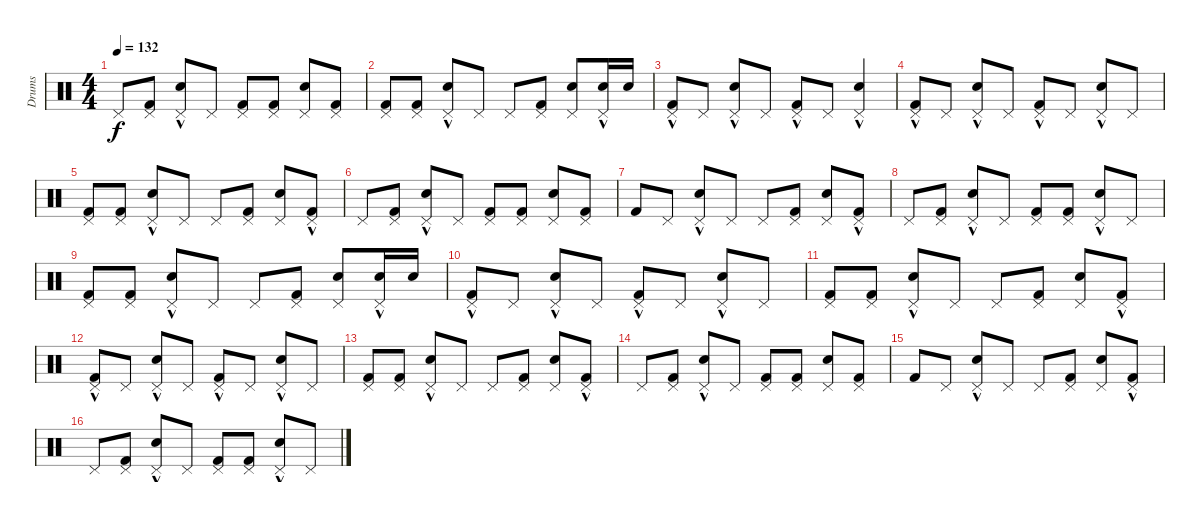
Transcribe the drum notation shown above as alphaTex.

\track ("Drums" "Drums") {instrument percussion}
\staff {score}
\articulation defaults
\ts (4 4)
\tempo 132
\clef neutral
\ks c "Pedal Hi-Hat (hit)".8{dy f}
("Pedal Hi-Hat (hit)" "Kick (hit) 2").8 ("Pedal Hi-Hat (hit)"{hac} "Snare (hit) 2").8 "Pedal Hi-Hat (hit)".8 ("Pedal Hi-Hat (hit)" "Kick (hit) 2").8 ("Pedal Hi-Hat (hit)" "Kick (hit) 2").8 ("Pedal Hi-Hat (hit)" "Snare (hit) 2").8 ("Pedal Hi-Hat (hit)" "Kick (hit) 2").8 |
("Pedal Hi-Hat (hit)" "Kick (hit) 2").8 ("Pedal Hi-Hat (hit)" "Kick (hit) 2").8 ("Pedal Hi-Hat (hit)"{hac} "Snare (hit) 2").8 "Pedal Hi-Hat (hit)".8 "Pedal Hi-Hat (hit)".8 ("Pedal Hi-Hat (hit)" "Kick (hit) 2").8 ("Pedal Hi-Hat (hit)" "Snare (hit) 2").8 ("Pedal Hi-Hat (hit)"{hac} "Snare (hit) 2").16 "Snare (hit) 2".16 |
("Pedal Hi-Hat (hit)"{hac} "Kick (hit) 2").8 "Pedal Hi-Hat (hit)".8 ("Pedal Hi-Hat (hit)"{hac} "Snare (hit) 2").8 "Pedal Hi-Hat (hit)".8 ("Pedal Hi-Hat (hit)"{hac} "Kick (hit) 2").8 "Pedal Hi-Hat (hit)".8 ("Pedal Hi-Hat (hit)"{hac} "Snare (hit) 2").4 |
("Pedal Hi-Hat (hit)"{hac} "Kick (hit) 2").8 "Pedal Hi-Hat (hit)".8 ("Pedal Hi-Hat (hit)"{hac} "Snare (hit) 2").8 "Pedal Hi-Hat (hit)".8 ("Pedal Hi-Hat (hit)"{hac} "Kick (hit) 2").8 "Pedal Hi-Hat (hit)".8 ("Pedal Hi-Hat (hit)"{hac} "Snare (hit) 2").8 "Pedal Hi-Hat (hit)".8 |
("Pedal Hi-Hat (hit)" "Kick (hit) 2").8 ("Pedal Hi-Hat (hit)" "Kick (hit) 2").8 ("Pedal Hi-Hat (hit)"{hac} "Snare (hit) 2").8 "Pedal Hi-Hat (hit)".8 "Pedal Hi-Hat (hit)".8 ("Pedal Hi-Hat (hit)" "Kick (hit) 2").8 ("Pedal Hi-Hat (hit)" "Snare (hit) 2").8 ("Pedal Hi-Hat (hit)"{hac} "Kick (hit) 2"{hac}).8 |
"Pedal Hi-Hat (hit)".8 ("Pedal Hi-Hat (hit)" "Kick (hit) 2").8 ("Pedal Hi-Hat (hit)"{hac} "Snare (hit) 2").8 "Pedal Hi-Hat (hit)".8 ("Pedal Hi-Hat (hit)" "Kick (hit) 2").8 ("Pedal Hi-Hat (hit)" "Kick (hit) 2").8 ("Pedal Hi-Hat (hit)" "Snare (hit) 2").8 ("Pedal Hi-Hat (hit)" "Kick (hit) 2").8 |
"Kick (hit) 2".8 "Pedal Hi-Hat (hit)".8 ("Pedal Hi-Hat (hit)"{hac} "Snare (hit) 2").8 "Pedal Hi-Hat (hit)".8 "Pedal Hi-Hat (hit)".8 ("Pedal Hi-Hat (hit)" "Kick (hit) 2").8 ("Pedal Hi-Hat (hit)" "Snare (hit) 2").8 ("Pedal Hi-Hat (hit)"{hac} "Kick (hit) 2"{hac}).8 |
"Pedal Hi-Hat (hit)".8 ("Pedal Hi-Hat (hit)" "Kick (hit) 2").8 ("Pedal Hi-Hat (hit)"{hac} "Snare (hit) 2").8 "Pedal Hi-Hat (hit)".8 ("Pedal Hi-Hat (hit)" "Kick (hit) 2").8 ("Pedal Hi-Hat (hit)" "Kick (hit) 2").8 ("Pedal Hi-Hat (hit)"{hac} "Snare (hit) 2").8 "Pedal Hi-Hat (hit)".8 |
("Pedal Hi-Hat (hit)" "Kick (hit) 2").8 ("Pedal Hi-Hat (hit)" "Kick (hit) 2").8 ("Pedal Hi-Hat (hit)"{hac} "Snare (hit) 2").8 "Pedal Hi-Hat (hit)".8 "Pedal Hi-Hat (hit)".8 ("Pedal Hi-Hat (hit)" "Kick (hit) 2").8 ("Pedal Hi-Hat (hit)" "Snare (hit) 2").8 ("Pedal Hi-Hat (hit)"{hac} "Snare (hit) 2").16 "Snare (hit) 2".16 |
("Pedal Hi-Hat (hit)"{hac} "Kick (hit) 2").8 "Pedal Hi-Hat (hit)".8 ("Pedal Hi-Hat (hit)"{hac} "Snare (hit) 2").8 "Pedal Hi-Hat (hit)".8 ("Pedal Hi-Hat (hit)"{hac} "Kick (hit) 2").8 "Pedal Hi-Hat (hit)".8 ("Pedal Hi-Hat (hit)"{hac} "Snare (hit) 2").8 "Pedal Hi-Hat (hit)".8 |
("Pedal Hi-Hat (hit)" "Kick (hit) 2").8 ("Pedal Hi-Hat (hit)" "Kick (hit) 2").8 ("Pedal Hi-Hat (hit)"{hac} "Snare (hit) 2").8 "Pedal Hi-Hat (hit)".8 "Pedal Hi-Hat (hit)".8 ("Pedal Hi-Hat (hit)" "Kick (hit) 2").8 ("Pedal Hi-Hat (hit)" "Snare (hit) 2").8 ("Pedal Hi-Hat (hit)"{hac} "Kick (hit) 2"{hac}).8 |
("Pedal Hi-Hat (hit)"{hac} "Kick (hit) 2").8 "Pedal Hi-Hat (hit)".8 ("Pedal Hi-Hat (hit)"{hac} "Snare (hit) 2").8 "Pedal Hi-Hat (hit)".8 ("Pedal Hi-Hat (hit)"{hac} "Kick (hit) 2").8 "Pedal Hi-Hat (hit)".8 ("Pedal Hi-Hat (hit)"{hac} "Snare (hit) 2").8 "Pedal Hi-Hat (hit)".8 |
("Pedal Hi-Hat (hit)" "Kick (hit) 2").8 ("Pedal Hi-Hat (hit)" "Kick (hit) 2").8 ("Pedal Hi-Hat (hit)"{hac} "Snare (hit) 2").8 "Pedal Hi-Hat (hit)".8 "Pedal Hi-Hat (hit)".8 ("Pedal Hi-Hat (hit)" "Kick (hit) 2").8 ("Pedal Hi-Hat (hit)" "Snare (hit) 2").8 ("Pedal Hi-Hat (hit)"{hac} "Kick (hit) 2"{hac}).8 |
"Pedal Hi-Hat (hit)".8 ("Pedal Hi-Hat (hit)" "Kick (hit) 2").8 ("Pedal Hi-Hat (hit)"{hac} "Snare (hit) 2").8 "Pedal Hi-Hat (hit)".8 ("Pedal Hi-Hat (hit)" "Kick (hit) 2").8 ("Pedal Hi-Hat (hit)" "Kick (hit) 2").8 ("Pedal Hi-Hat (hit)" "Snare (hit) 2").8 ("Pedal Hi-Hat (hit)" "Kick (hit) 2").8 |
"Kick (hit) 2".8 "Pedal Hi-Hat (hit)".8 ("Pedal Hi-Hat (hit)"{hac} "Snare (hit) 2").8 "Pedal Hi-Hat (hit)".8 "Pedal Hi-Hat (hit)".8 ("Pedal Hi-Hat (hit)" "Kick (hit) 2").8 ("Pedal Hi-Hat (hit)" "Snare (hit) 2").8 ("Pedal Hi-Hat (hit)"{hac} "Kick (hit) 2"{hac}).8 |
"Pedal Hi-Hat (hit)".8 ("Pedal Hi-Hat (hit)" "Kick (hit) 2").8 ("Pedal Hi-Hat (hit)"{hac} "Snare (hit) 2").8 "Pedal Hi-Hat (hit)".8 ("Pedal Hi-Hat (hit)" "Kick (hit) 2").8 ("Pedal Hi-Hat (hit)" "Kick (hit) 2").8 ("Pedal Hi-Hat (hit)"{hac} "Snare (hit) 2").8 "Pedal Hi-Hat (hit)".8
